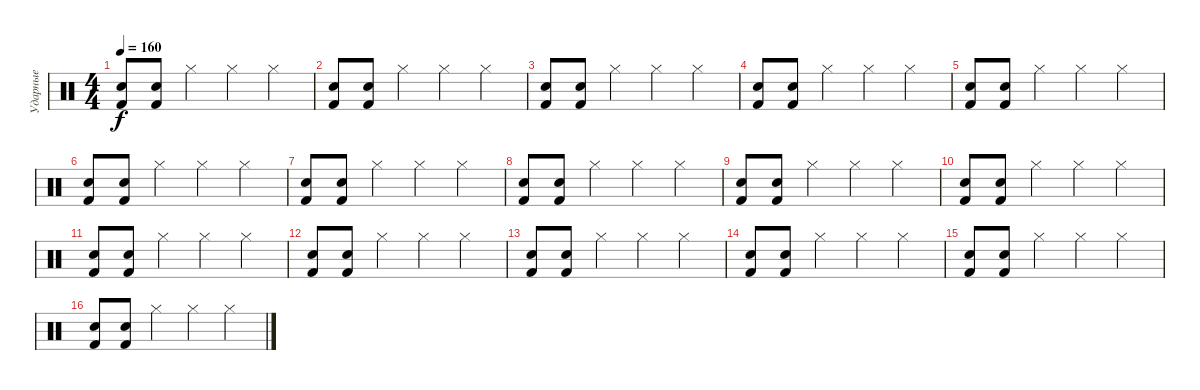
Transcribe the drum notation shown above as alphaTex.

\track ("Ударные" "Ударные") {instrument percussion}
\staff {score}
\articulation defaults
\ts (4 4)
\tempo 160
\clef neutral
\ks c
("Electric Snare (hit)" "Kick (hit) 2").8{dy f} ("Electric Snare (hit)" "Kick (hit) 2").8 "Hi-Hat (closed)".4 "Hi-Hat (closed)".4 "Hi-Hat (closed)".4 |
("Electric Snare (hit)" "Kick (hit) 2").8 ("Electric Snare (hit)" "Kick (hit) 2").8 "Hi-Hat (closed)".4 "Hi-Hat (closed)".4 "Hi-Hat (closed)".4 |
("Electric Snare (hit)" "Kick (hit) 2").8 ("Electric Snare (hit)" "Kick (hit) 2").8 "Hi-Hat (closed)".4 "Hi-Hat (closed)".4 "Hi-Hat (closed)".4 |
("Electric Snare (hit)" "Kick (hit) 2").8 ("Electric Snare (hit)" "Kick (hit) 2").8 "Hi-Hat (closed)".4 "Hi-Hat (closed)".4 "Hi-Hat (closed)".4 |
("Electric Snare (hit)" "Kick (hit) 2").8 ("Electric Snare (hit)" "Kick (hit) 2").8 "Hi-Hat (closed)".4 "Hi-Hat (closed)".4 "Hi-Hat (closed)".4 |
("Electric Snare (hit)" "Kick (hit) 2").8 ("Electric Snare (hit)" "Kick (hit) 2").8 "Hi-Hat (closed)".4 "Hi-Hat (closed)".4 "Hi-Hat (closed)".4 |
("Electric Snare (hit)" "Kick (hit) 2").8 ("Electric Snare (hit)" "Kick (hit) 2").8 "Hi-Hat (closed)".4 "Hi-Hat (closed)".4 "Hi-Hat (closed)".4 |
("Electric Snare (hit)" "Kick (hit) 2").8 ("Electric Snare (hit)" "Kick (hit) 2").8 "Hi-Hat (closed)".4 "Hi-Hat (closed)".4 "Hi-Hat (closed)".4 |
("Electric Snare (hit)" "Kick (hit) 2").8 ("Electric Snare (hit)" "Kick (hit) 2").8 "Hi-Hat (closed)".4 "Hi-Hat (closed)".4 "Hi-Hat (closed)".4 |
("Electric Snare (hit)" "Kick (hit) 2").8 ("Electric Snare (hit)" "Kick (hit) 2").8 "Hi-Hat (closed)".4 "Hi-Hat (closed)".4 "Hi-Hat (closed)".4 |
("Electric Snare (hit)" "Kick (hit) 2").8 ("Electric Snare (hit)" "Kick (hit) 2").8 "Hi-Hat (closed)".4 "Hi-Hat (closed)".4 "Hi-Hat (closed)".4 |
("Electric Snare (hit)" "Kick (hit) 2").8 ("Electric Snare (hit)" "Kick (hit) 2").8 "Hi-Hat (closed)".4 "Hi-Hat (closed)".4 "Hi-Hat (closed)".4 |
("Electric Snare (hit)" "Kick (hit) 2").8 ("Electric Snare (hit)" "Kick (hit) 2").8 "Hi-Hat (closed)".4 "Hi-Hat (closed)".4 "Hi-Hat (closed)".4 |
("Electric Snare (hit)" "Kick (hit) 2").8 ("Electric Snare (hit)" "Kick (hit) 2").8 "Hi-Hat (closed)".4 "Hi-Hat (closed)".4 "Hi-Hat (closed)".4 |
("Electric Snare (hit)" "Kick (hit) 2").8 ("Electric Snare (hit)" "Kick (hit) 2").8 "Hi-Hat (closed)".4 "Hi-Hat (closed)".4 "Hi-Hat (closed)".4 |
("Electric Snare (hit)" "Kick (hit) 2").8 ("Electric Snare (hit)" "Kick (hit) 2").8 "Hi-Hat (closed)".4 "Hi-Hat (closed)".4 "Hi-Hat (closed)".4
